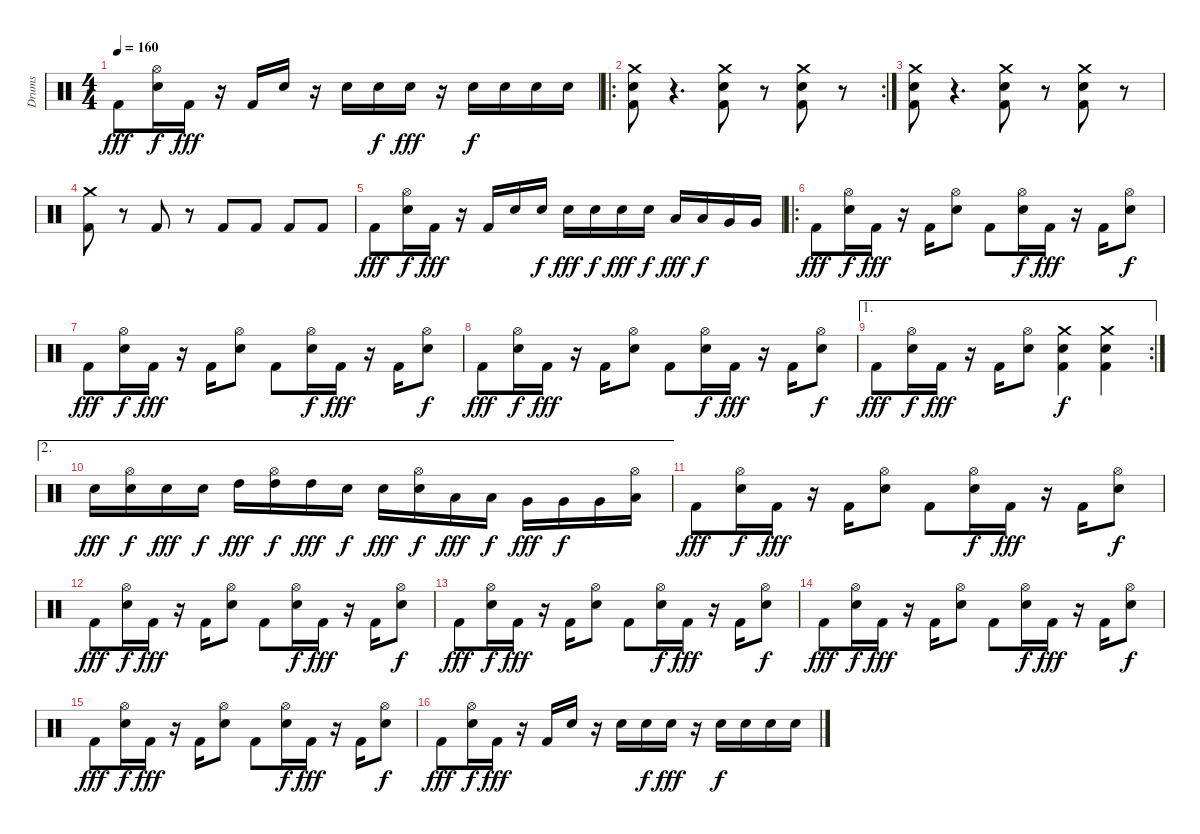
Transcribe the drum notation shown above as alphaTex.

\track ("Drums" "Drums") {instrument percussion}
\staff {score}
\articulation defaults
\ts (4 4)
\tempo 160
\clef neutral
\ks c "Kick (hit) 2".8{dy fff}
("Electric Snare (hit)" "Hi-Hat (open)").16{dy f} "Kick (hit) 2".16{dy fff} r.16 "Kick (hit) 2".16 "Electric Snare (hit)".16 r.16 "Electric Snare (hit)".16 "Electric Snare (hit)".16{dy f} "Electric Snare (hit)".16{dy fff} r.16 "Electric Snare (hit)".16{dy f} "Electric Snare (hit)".16 "Electric Snare (hit)".16 "Electric Snare (hit)".16 |
\ro
\rc 2
("Electric Snare (hit)" "Kick (hit) 2" "Crash medium (hit)").8 r.4{d} ("Electric Snare (hit)" "Kick (hit) 2" "Crash medium (hit)").8 r.8 ("Electric Snare (hit)" "Kick (hit) 2" "Crash medium (hit)").8 r.8 |
("Electric Snare (hit)" "Kick (hit) 2" "Crash medium (hit)").8 r.4{d} ("Electric Snare (hit)" "Kick (hit) 2" "Crash medium (hit)").8 r.8 ("Electric Snare (hit)" "Kick (hit) 2" "Crash medium (hit)").8 r.8 |
("Kick (hit) 2" "Crash medium (hit)").8 r.8 "Kick (hit) 2".8 r.8 "Kick (hit) 2".8 "Kick (hit) 2".8 "Kick (hit) 2".8 "Kick (hit) 2".8 |
"Kick (hit) 2".8{dy fff} ("Electric Snare (hit)" "Hi-Hat (open)").16{dy f} "Kick (hit) 2".16{dy fff} r.16 "Kick (hit) 2".16 "Electric Snare (hit)".16 "Electric Snare (hit)".16{dy f} "Electric Snare (hit)".16{dy fff} "Electric Snare (hit)".16{dy f} "Electric Snare (hit)".16{dy fff} "Electric Snare (hit)".16{dy f} "Low Tom (hit)".16{dy fff} "Low Tom (hit)".16{dy f} "Very Low Tom (hit)".16 "Very Low Tom (hit)".16 |
\ro "Kick (hit) 2".8{dy fff}
("Electric Snare (hit)" "Hi-Hat (open)").16{dy f} "Kick (hit) 2".16{dy fff} r.16 "Kick (hit) 2".16 ("Electric Snare (hit)" "Hi-Hat (open)").8 "Kick (hit) 2".8 ("Electric Snare (hit)" "Hi-Hat (open)").16{dy f} "Kick (hit) 2".16{dy fff} r.16 "Kick (hit) 2".16 ("Electric Snare (hit)" "Hi-Hat (open)").8{dy f} |
"Kick (hit) 2".8{dy fff} ("Electric Snare (hit)" "Hi-Hat (open)").16{dy f} "Kick (hit) 2".16{dy fff} r.16 "Kick (hit) 2".16 ("Electric Snare (hit)" "Hi-Hat (open)").8 "Kick (hit) 2".8 ("Electric Snare (hit)" "Hi-Hat (open)").16{dy f} "Kick (hit) 2".16{dy fff} r.16 "Kick (hit) 2".16 ("Electric Snare (hit)" "Hi-Hat (open)").8{dy f} |
"Kick (hit) 2".8{dy fff} ("Electric Snare (hit)" "Hi-Hat (open)").16{dy f} "Kick (hit) 2".16{dy fff} r.16 "Kick (hit) 2".16 ("Electric Snare (hit)" "Hi-Hat (open)").8 "Kick (hit) 2".8 ("Electric Snare (hit)" "Hi-Hat (open)").16{dy f} "Kick (hit) 2".16{dy fff} r.16 "Kick (hit) 2".16 ("Electric Snare (hit)" "Hi-Hat (open)").8{dy f} |
\ae 1
\rc 2 "Kick (hit) 2".8{dy fff}
("Electric Snare (hit)" "Hi-Hat (open)").16{dy f} "Kick (hit) 2".16{dy fff} r.16 "Kick (hit) 2".16 ("Electric Snare (hit)" "Hi-Hat (open)").8 ("Electric Snare (hit)" "Kick (hit) 2" "Crash medium (hit)").4{dy f} ("Electric Snare (hit)" "Kick (hit) 2" "Crash medium (hit)").4 |
\ae 2 "Electric Snare (hit)".16{dy fff}
("Electric Snare (hit)" "Hi-Hat (open)").16{dy f} "Electric Snare (hit)".16{dy fff} "Electric Snare (hit)".16{dy f} "High Tom (hit)".16{dy fff} ("High Tom (hit)" "Hi-Hat (open)").16{dy f} "High Tom (hit)".16{dy fff} "Electric Snare (hit)".16{dy f} "Electric Snare (hit)".16{dy fff} ("Electric Snare (hit)" "Hi-Hat (open)").16{dy f} "Low Tom (hit)".16{dy fff} "Low Tom (hit)".16{dy f} "Very Low Tom (hit)".16{dy fff} "Very Low Tom (hit)".16{dy f} "Very Low Tom (hit)".16 ("Low Floor Tom (hit)" "Hi-Hat (open)").16 |
"Kick (hit) 2".8{dy fff} ("Electric Snare (hit)" "Hi-Hat (open)").16{dy f} "Kick (hit) 2".16{dy fff} r.16 "Kick (hit) 2".16 ("Electric Snare (hit)" "Hi-Hat (open)").8 "Kick (hit) 2".8 ("Electric Snare (hit)" "Hi-Hat (open)").16{dy f} "Kick (hit) 2".16{dy fff} r.16 "Kick (hit) 2".16 ("Electric Snare (hit)" "Hi-Hat (open)").8{dy f} |
"Kick (hit) 2".8{dy fff} ("Electric Snare (hit)" "Hi-Hat (open)").16{dy f} "Kick (hit) 2".16{dy fff} r.16 "Kick (hit) 2".16 ("Electric Snare (hit)" "Hi-Hat (open)").8 "Kick (hit) 2".8 ("Electric Snare (hit)" "Hi-Hat (open)").16{dy f} "Kick (hit) 2".16{dy fff} r.16 "Kick (hit) 2".16 ("Electric Snare (hit)" "Hi-Hat (open)").8{dy f} |
"Kick (hit) 2".8{dy fff} ("Electric Snare (hit)" "Hi-Hat (open)").16{dy f} "Kick (hit) 2".16{dy fff} r.16 "Kick (hit) 2".16 ("Electric Snare (hit)" "Hi-Hat (open)").8 "Kick (hit) 2".8 ("Electric Snare (hit)" "Hi-Hat (open)").16{dy f} "Kick (hit) 2".16{dy fff} r.16 "Kick (hit) 2".16 ("Electric Snare (hit)" "Hi-Hat (open)").8{dy f} |
"Kick (hit) 2".8{dy fff} ("Electric Snare (hit)" "Hi-Hat (open)").16{dy f} "Kick (hit) 2".16{dy fff} r.16 "Kick (hit) 2".16 ("Electric Snare (hit)" "Hi-Hat (open)").8 "Kick (hit) 2".8 ("Electric Snare (hit)" "Hi-Hat (open)").16{dy f} "Kick (hit) 2".16{dy fff} r.16 "Kick (hit) 2".16 ("Electric Snare (hit)" "Hi-Hat (open)").8{dy f} |
"Kick (hit) 2".8{dy fff} ("Electric Snare (hit)" "Hi-Hat (open)").16{dy f} "Kick (hit) 2".16{dy fff} r.16 "Kick (hit) 2".16 ("Electric Snare (hit)" "Hi-Hat (open)").8 "Kick (hit) 2".8 ("Electric Snare (hit)" "Hi-Hat (open)").16{dy f} "Kick (hit) 2".16{dy fff} r.16 "Kick (hit) 2".16 ("Electric Snare (hit)" "Hi-Hat (open)").8{dy f} |
"Kick (hit) 2".8{dy fff} ("Electric Snare (hit)" "Hi-Hat (open)").16{dy f} "Kick (hit) 2".16{dy fff} r.16 "Kick (hit) 2".16 "Electric Snare (hit)".16 r.16 "Electric Snare (hit)".16 "Electric Snare (hit)".16{dy f} "Electric Snare (hit)".16{dy fff} r.16 "Electric Snare (hit)".16{dy f} "Electric Snare (hit)".16 "Electric Snare (hit)".16 "Electric Snare (hit)".16
